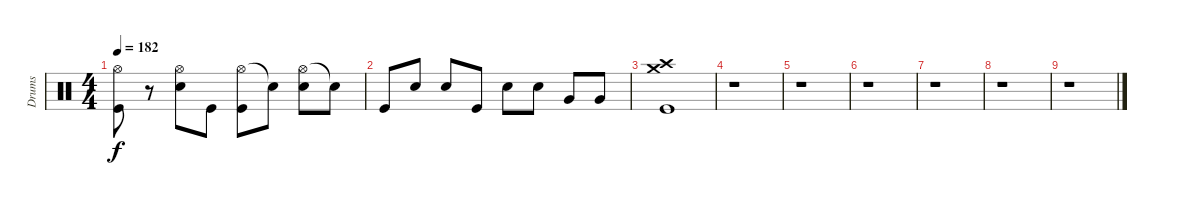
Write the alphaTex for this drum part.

\track ("Drums" "Drums") {instrument percussion}
\staff {score}
\articulation defaults
\ts (4 4)
\tempo 182
\clef neutral
\ks c
("Hi-Hat (open)" "Kick (hit)").8{dy f} r.8 ("Hi-Hat (open)" "Snare (hit) 2").8 "Kick (hit)".8 ("Hi-Hat (open)" "Kick (hit)").8 "Snare (hit)"{t}.8 ("Hi-Hat (open)" "Snare (hit) 2").8 "Snare (hit)"{t}.8 |
"Kick (hit)".8 "Snare (hit) 2".8 "Snare (hit) 2".8 "Kick (hit)".8 "Snare (hit) 2".8 "Snare (hit) 2".8 "Very Low Tom (hit)".8 "Very Low Tom (hit)".8 |
("Crash high (hit)" "Crash medium (hit)" "Kick (hit)").1 |
r.1 |
r.1 |
r.1 |
r.1 |
r.1 |
r.1
